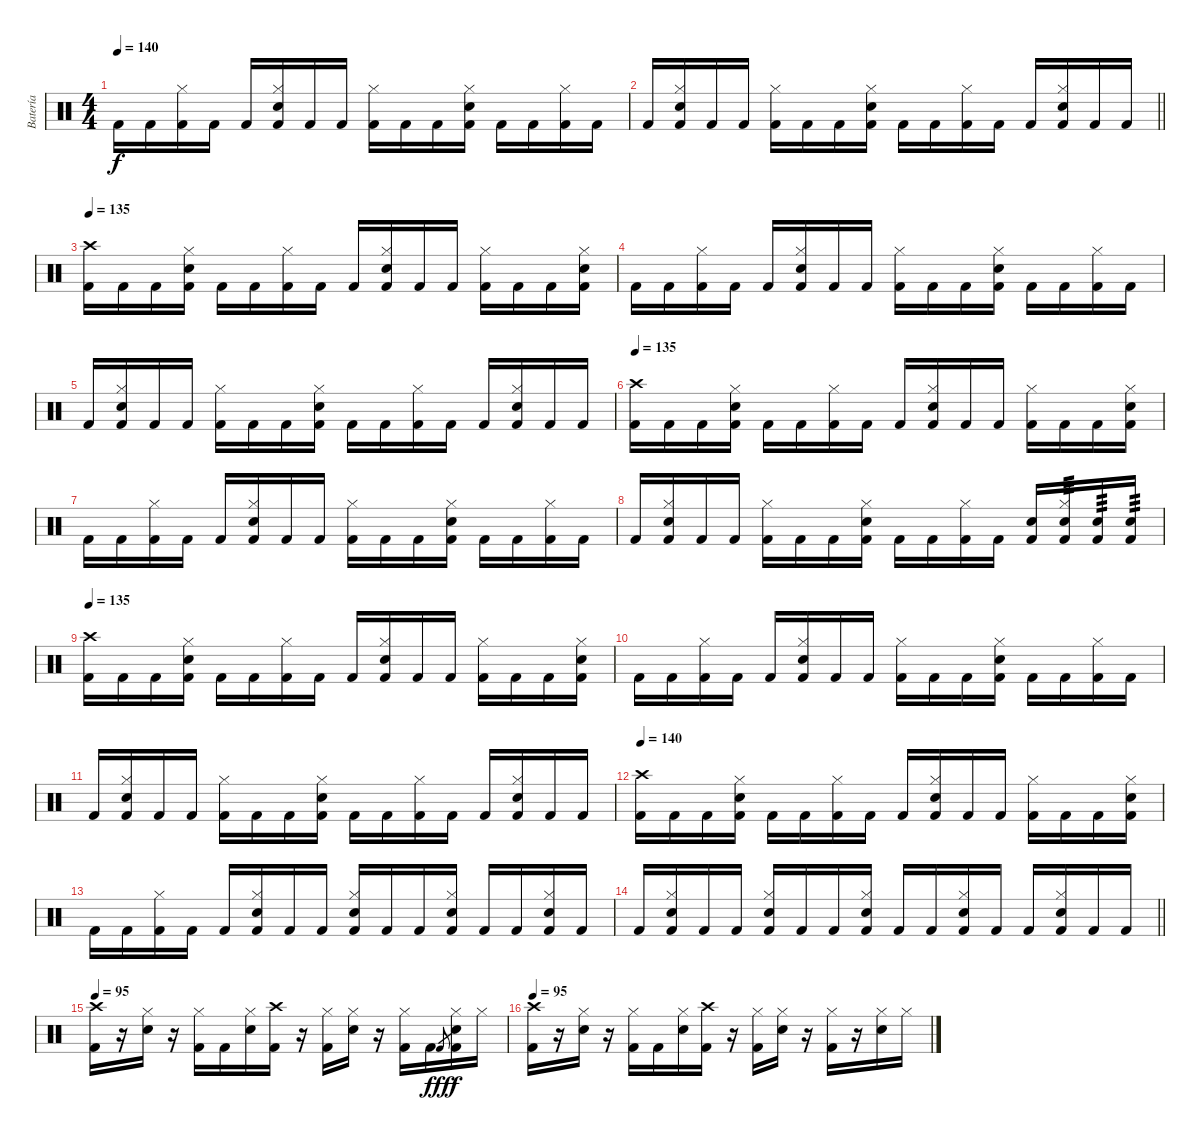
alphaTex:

\track ("Batería" "Batería") {instrument percussion}
\staff {score}
\articulation defaults
\ts (4 4)
\tempo 140
\clef neutral
\ks c "Kick (hit) 2".16{dy f} "Kick (hit) 2".16
("Hi-Hat (closed)" "Kick (hit) 2").16 "Kick (hit) 2".16 "Kick (hit) 2".16 ("Hi-Hat (closed)" "Snare (hit) 2" "Kick (hit) 2").16 "Kick (hit) 2".16 "Kick (hit) 2".16 ("Hi-Hat (closed)" "Kick (hit) 2").16 "Kick (hit) 2".16 "Kick (hit) 2".16 ("Hi-Hat (closed)" "Snare (hit) 2" "Kick (hit) 2").16 "Kick (hit) 2".16 "Kick (hit) 2".16 ("Hi-Hat (closed)" "Kick (hit) 2").16 "Kick (hit) 2".16 |
\barLineRight lightlight "Kick (hit) 2".16
("Hi-Hat (closed)" "Snare (hit) 2" "Kick (hit) 2").16 "Kick (hit) 2".16 "Kick (hit) 2".16 ("Hi-Hat (closed)" "Kick (hit) 2").16 "Kick (hit) 2".16 "Kick (hit) 2".16 ("Hi-Hat (closed)" "Snare (hit) 2" "Kick (hit) 2").16 "Kick (hit) 2".16 "Kick (hit) 2".16 ("Hi-Hat (closed)" "Kick (hit) 2").16 "Kick (hit) 2".16 "Kick (hit) 2".16 ("Hi-Hat (closed)" "Snare (hit) 2" "Kick (hit) 2").16 "Kick (hit) 2".16 "Kick (hit) 2".16 |
\tempo 135
("Crash high (hit)" "Kick (hit) 2").16 "Kick (hit) 2".16 "Kick (hit) 2".16 ("Hi-Hat (closed)" "Snare (hit) 2" "Kick (hit) 2").16 "Kick (hit) 2".16 "Kick (hit) 2".16 ("Hi-Hat (closed)" "Kick (hit) 2").16 "Kick (hit) 2".16 "Kick (hit) 2".16 ("Hi-Hat (closed)" "Snare (hit) 2" "Kick (hit) 2").16 "Kick (hit) 2".16 "Kick (hit) 2".16 ("Hi-Hat (closed)" "Kick (hit) 2").16 "Kick (hit) 2".16 "Kick (hit) 2".16 ("Hi-Hat (closed)" "Snare (hit) 2" "Kick (hit) 2").16 |
"Kick (hit) 2".16 "Kick (hit) 2".16 ("Hi-Hat (closed)" "Kick (hit) 2").16 "Kick (hit) 2".16 "Kick (hit) 2".16 ("Hi-Hat (closed)" "Snare (hit) 2" "Kick (hit) 2").16 "Kick (hit) 2".16 "Kick (hit) 2".16 ("Hi-Hat (closed)" "Kick (hit) 2").16 "Kick (hit) 2".16 "Kick (hit) 2".16 ("Hi-Hat (closed)" "Snare (hit) 2" "Kick (hit) 2").16 "Kick (hit) 2".16 "Kick (hit) 2".16 ("Hi-Hat (closed)" "Kick (hit) 2").16 "Kick (hit) 2".16 |
"Kick (hit) 2".16 ("Hi-Hat (closed)" "Snare (hit) 2" "Kick (hit) 2").16 "Kick (hit) 2".16 "Kick (hit) 2".16 ("Hi-Hat (closed)" "Kick (hit) 2").16 "Kick (hit) 2".16 "Kick (hit) 2".16 ("Hi-Hat (closed)" "Snare (hit) 2" "Kick (hit) 2").16 "Kick (hit) 2".16 "Kick (hit) 2".16 ("Hi-Hat (closed)" "Kick (hit) 2").16 "Kick (hit) 2".16 "Kick (hit) 2".16 ("Hi-Hat (closed)" "Snare (hit) 2" "Kick (hit) 2").16 "Kick (hit) 2".16 "Kick (hit) 2".16 |
\tempo 135
("Crash high (hit)" "Kick (hit) 2").16 "Kick (hit) 2".16 "Kick (hit) 2".16 ("Hi-Hat (closed)" "Snare (hit) 2" "Kick (hit) 2").16 "Kick (hit) 2".16 "Kick (hit) 2".16 ("Hi-Hat (closed)" "Kick (hit) 2").16 "Kick (hit) 2".16 "Kick (hit) 2".16 ("Hi-Hat (closed)" "Snare (hit) 2" "Kick (hit) 2").16 "Kick (hit) 2".16 "Kick (hit) 2".16 ("Hi-Hat (closed)" "Kick (hit) 2").16 "Kick (hit) 2".16 "Kick (hit) 2".16 ("Hi-Hat (closed)" "Snare (hit) 2" "Kick (hit) 2").16 |
"Kick (hit) 2".16 "Kick (hit) 2".16 ("Hi-Hat (closed)" "Kick (hit) 2").16 "Kick (hit) 2".16 "Kick (hit) 2".16 ("Hi-Hat (closed)" "Snare (hit) 2" "Kick (hit) 2").16 "Kick (hit) 2".16 "Kick (hit) 2".16 ("Hi-Hat (closed)" "Kick (hit) 2").16 "Kick (hit) 2".16 "Kick (hit) 2".16 ("Hi-Hat (closed)" "Snare (hit) 2" "Kick (hit) 2").16 "Kick (hit) 2".16 "Kick (hit) 2".16 ("Hi-Hat (closed)" "Kick (hit) 2").16 "Kick (hit) 2".16 |
"Kick (hit) 2".16 ("Hi-Hat (closed)" "Snare (hit) 2" "Kick (hit) 2").16 "Kick (hit) 2".16 "Kick (hit) 2".16 ("Hi-Hat (closed)" "Kick (hit) 2").16 "Kick (hit) 2".16 "Kick (hit) 2".16 ("Hi-Hat (closed)" "Snare (hit) 2" "Kick (hit) 2").16 "Kick (hit) 2".16 "Kick (hit) 2".16 ("Hi-Hat (closed)" "Kick (hit) 2").16 "Kick (hit) 2".16 ("Snare (hit) 2" "Kick (hit) 2").16 ("Hi-Hat (closed)" "Snare (hit) 2" "Kick (hit) 2").16{tp 3} ("Snare (hit) 2" "Kick (hit) 2").16{tp 3} ("Snare (hit) 2" "Kick (hit) 2").16{tp 3} |
\tempo 135
("Crash high (hit)" "Kick (hit) 2").16 "Kick (hit) 2".16 "Kick (hit) 2".16 ("Hi-Hat (closed)" "Snare (hit) 2" "Kick (hit) 2").16 "Kick (hit) 2".16 "Kick (hit) 2".16 ("Hi-Hat (closed)" "Kick (hit) 2").16 "Kick (hit) 2".16 "Kick (hit) 2".16 ("Hi-Hat (closed)" "Snare (hit) 2" "Kick (hit) 2").16 "Kick (hit) 2".16 "Kick (hit) 2".16 ("Hi-Hat (closed)" "Kick (hit) 2").16 "Kick (hit) 2".16 "Kick (hit) 2".16 ("Hi-Hat (closed)" "Snare (hit) 2" "Kick (hit) 2").16 |
"Kick (hit) 2".16 "Kick (hit) 2".16 ("Hi-Hat (closed)" "Kick (hit) 2").16 "Kick (hit) 2".16 "Kick (hit) 2".16 ("Hi-Hat (closed)" "Snare (hit) 2" "Kick (hit) 2").16 "Kick (hit) 2".16 "Kick (hit) 2".16 ("Hi-Hat (closed)" "Kick (hit) 2").16 "Kick (hit) 2".16 "Kick (hit) 2".16 ("Hi-Hat (closed)" "Snare (hit) 2" "Kick (hit) 2").16 "Kick (hit) 2".16 "Kick (hit) 2".16 ("Hi-Hat (closed)" "Kick (hit) 2").16 "Kick (hit) 2".16 |
"Kick (hit) 2".16 ("Hi-Hat (closed)" "Snare (hit) 2" "Kick (hit) 2").16 "Kick (hit) 2".16 "Kick (hit) 2".16 ("Hi-Hat (closed)" "Kick (hit) 2").16 "Kick (hit) 2".16 "Kick (hit) 2".16 ("Hi-Hat (closed)" "Snare (hit) 2" "Kick (hit) 2").16 "Kick (hit) 2".16 "Kick (hit) 2".16 ("Hi-Hat (closed)" "Kick (hit) 2").16 "Kick (hit) 2".16 "Kick (hit) 2".16 ("Hi-Hat (closed)" "Snare (hit) 2" "Kick (hit) 2").16 "Kick (hit) 2".16 "Kick (hit) 2".16 |
\tempo 140
("Crash high (hit)" "Kick (hit) 2").16 "Kick (hit) 2".16 "Kick (hit) 2".16 ("Hi-Hat (closed)" "Snare (hit) 2" "Kick (hit) 2").16 "Kick (hit) 2".16 "Kick (hit) 2".16 ("Hi-Hat (closed)" "Kick (hit) 2").16 "Kick (hit) 2".16 "Kick (hit) 2".16 ("Hi-Hat (closed)" "Snare (hit) 2" "Kick (hit) 2").16 "Kick (hit) 2".16 "Kick (hit) 2".16 ("Hi-Hat (closed)" "Kick (hit) 2").16 "Kick (hit) 2".16 "Kick (hit) 2".16 ("Hi-Hat (closed)" "Snare (hit) 2" "Kick (hit) 2").16 |
"Kick (hit) 2".16 "Kick (hit) 2".16 ("Hi-Hat (closed)" "Kick (hit) 2").16 "Kick (hit) 2".16 "Kick (hit) 2".16 ("Hi-Hat (closed)" "Snare (hit) 2" "Kick (hit) 2").16 "Kick (hit) 2".16 "Kick (hit) 2".16 ("Hi-Hat (closed)" "Snare (hit) 2" "Kick (hit) 2").16 "Kick (hit) 2".16 "Kick (hit) 2".16 ("Hi-Hat (closed)" "Snare (hit) 2" "Kick (hit) 2").16 "Kick (hit) 2".16 "Kick (hit) 2".16 ("Hi-Hat (closed)" "Snare (hit) 2" "Kick (hit) 2").16 "Kick (hit) 2".16 |
\barLineRight lightlight "Kick (hit) 2".16
("Hi-Hat (closed)" "Snare (hit) 2" "Kick (hit) 2").16 "Kick (hit) 2".16 "Kick (hit) 2".16 ("Hi-Hat (closed)" "Snare (hit) 2" "Kick (hit) 2").16 "Kick (hit) 2".16 "Kick (hit) 2".16 ("Hi-Hat (closed)" "Snare (hit) 2" "Kick (hit) 2").16 "Kick (hit) 2".16 "Kick (hit) 2".16 ("Hi-Hat (closed)" "Snare (hit) 2" "Kick (hit) 2").16 "Kick (hit) 2".16 "Kick (hit) 2".16 ("Hi-Hat (closed)" "Snare (hit) 2" "Kick (hit) 2").16 "Kick (hit) 2".16 "Kick (hit) 2".16 |
\tempo 95
("Crash high (hit)" "Kick (hit) 2").16 r.16 ("Hi-Hat (closed)" "Snare (hit) 2").16 r.16 ("Hi-Hat (closed)" "Kick (hit) 2").16 "Kick (hit) 2".16 ("Hi-Hat (closed)" "Snare (hit) 2").16 ("Crash high (hit)" "Kick (hit) 2").16 r.16 ("Hi-Hat (closed)" "Kick (hit) 2").16 ("Hi-Hat (closed)" "Snare (hit) 2").16 r.16 ("Hi-Hat (closed)" "Kick (hit) 2").16 "Kick (hit) 2".16 "Kick (hit) 2".8{gr dy fff} ("Hi-Hat (closed)" "Snare (hit) 2" "Kick (hit) 2").16{dy f} "Hi-Hat (closed)".16 |
\tempo 95
("Crash high (hit)" "Kick (hit) 2").16 r.16 ("Hi-Hat (closed)" "Snare (hit) 2").16 r.16 ("Hi-Hat (closed)" "Kick (hit) 2").16 "Kick (hit) 2".16 ("Hi-Hat (closed)" "Snare (hit) 2").16 ("Crash high (hit)" "Kick (hit) 2").16 r.16 ("Hi-Hat (closed)" "Kick (hit) 2").16 ("Hi-Hat (closed)" "Snare (hit) 2").16 r.16 ("Hi-Hat (closed)" "Kick (hit) 2").16 r.16 ("Hi-Hat (closed)" "Snare (hit) 2").16 "Hi-Hat (closed)".16
